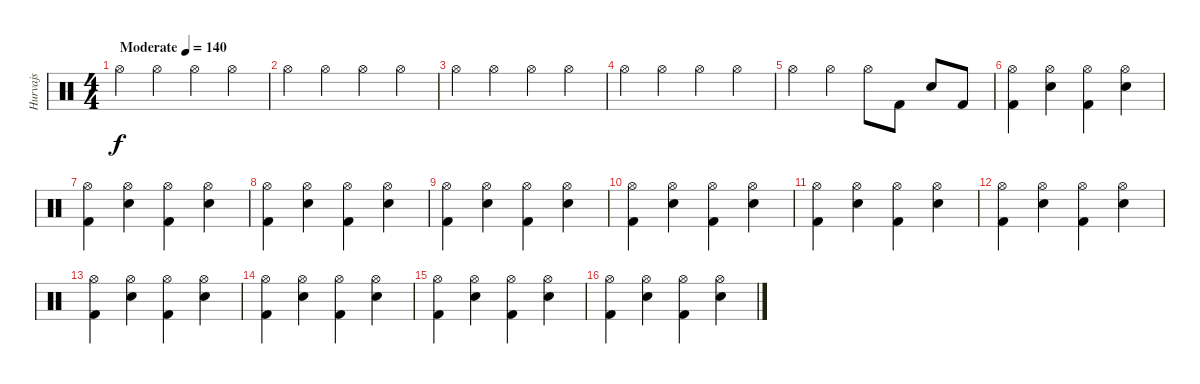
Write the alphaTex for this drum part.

\track ("Hurvajs" "Hurvajs") {instrument percussion}
\staff {score}
\articulation defaults
\ts (4 4)
\tempo (140 "Moderate")
\clef neutral
\ks c "Hi-Hat (open)".4{dy f} "Hi-Hat (open)".4 "Hi-Hat (open)".4 "Hi-Hat (open)".4
|
"Hi-Hat (open)".4 "Hi-Hat (open)".4 "Hi-Hat (open)".4 "Hi-Hat (open)".4 |
"Hi-Hat (open)".4 "Hi-Hat (open)".4 "Hi-Hat (open)".4 "Hi-Hat (open)".4 |
"Hi-Hat (open)".4 "Hi-Hat (open)".4 "Hi-Hat (open)".4 "Hi-Hat (open)".4 |
"Hi-Hat (open)".4 "Hi-Hat (open)".4 "Hi-Hat (open)".8 "Kick (hit) 2".8 "Snare (hit) 2".8 "Kick (hit) 2".8 |
("Hi-Hat (open)" "Kick (hit) 2").4 ("Hi-Hat (open)" "Snare (hit) 2").4 ("Hi-Hat (open)" "Kick (hit) 2").4 ("Hi-Hat (open)" "Snare (hit) 2").4 |
("Hi-Hat (open)" "Kick (hit) 2").4 ("Hi-Hat (open)" "Snare (hit) 2").4 ("Hi-Hat (open)" "Kick (hit) 2").4 ("Hi-Hat (open)" "Snare (hit) 2").4 |
("Hi-Hat (open)" "Kick (hit) 2").4 ("Hi-Hat (open)" "Snare (hit) 2").4 ("Hi-Hat (open)" "Kick (hit) 2").4 ("Hi-Hat (open)" "Snare (hit) 2").4 |
("Hi-Hat (open)" "Kick (hit) 2").4 ("Hi-Hat (open)" "Snare (hit) 2").4 ("Hi-Hat (open)" "Kick (hit) 2").4 ("Hi-Hat (open)" "Snare (hit) 2").4 |
("Hi-Hat (open)" "Kick (hit) 2").4 ("Hi-Hat (open)" "Snare (hit) 2").4 ("Hi-Hat (open)" "Kick (hit) 2").4 ("Hi-Hat (open)" "Snare (hit) 2").4 |
("Hi-Hat (open)" "Kick (hit) 2").4 ("Hi-Hat (open)" "Snare (hit) 2").4 ("Hi-Hat (open)" "Kick (hit) 2").4 ("Hi-Hat (open)" "Snare (hit) 2").4 |
("Hi-Hat (open)" "Kick (hit) 2").4 ("Hi-Hat (open)" "Snare (hit) 2").4 ("Hi-Hat (open)" "Kick (hit) 2").4 ("Hi-Hat (open)" "Snare (hit) 2").4 |
("Hi-Hat (open)" "Kick (hit) 2").4 ("Hi-Hat (open)" "Snare (hit) 2").4 ("Hi-Hat (open)" "Kick (hit) 2").4 ("Hi-Hat (open)" "Snare (hit) 2").4 |
("Hi-Hat (open)" "Kick (hit) 2").4 ("Hi-Hat (open)" "Snare (hit) 2").4 ("Hi-Hat (open)" "Kick (hit) 2").4 ("Hi-Hat (open)" "Snare (hit) 2").4 |
("Hi-Hat (open)" "Kick (hit) 2").4 ("Hi-Hat (open)" "Snare (hit) 2").4 ("Hi-Hat (open)" "Kick (hit) 2").4 ("Hi-Hat (open)" "Snare (hit) 2").4 |
("Hi-Hat (open)" "Kick (hit) 2").4 ("Hi-Hat (open)" "Snare (hit) 2").4 ("Hi-Hat (open)" "Kick (hit) 2").4 ("Hi-Hat (open)" "Snare (hit) 2").4
